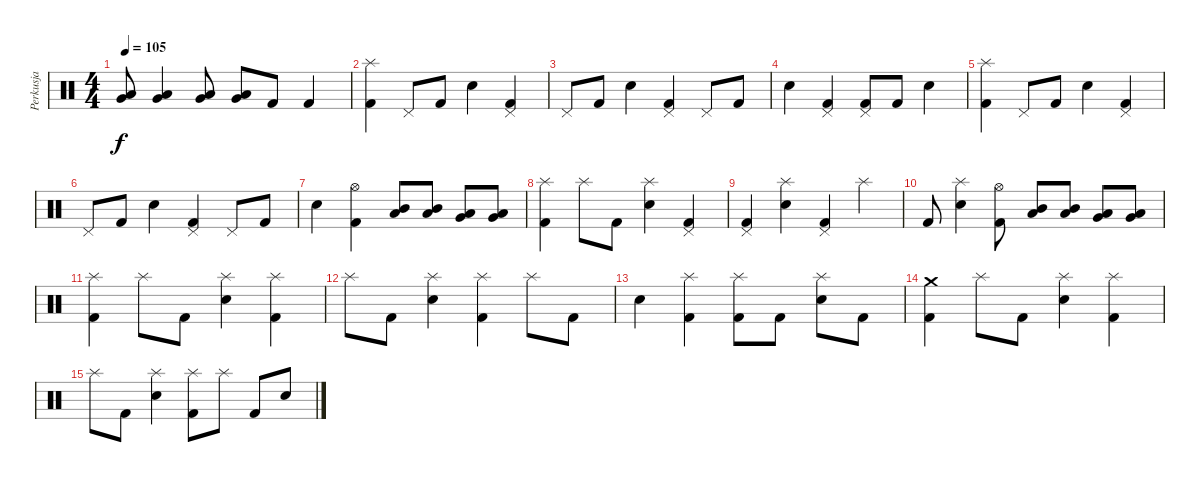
\track ("Perkusja" "Perkusja") {instrument percussion}
\staff {score}
\articulation defaults
\ts (4 4)
\tempo 105
\clef neutral
\ks c
("Low Tom (hit)" "Very Low Tom (hit)").8{dy f} ("Very Low Tom (hit)" "Low Floor Tom (hit)").4 ("Low Tom (hit)" "Very Low Tom (hit)").8 ("Very Low Tom (hit)" "Low Floor Tom (hit)").8 "Kick (hit) 2".8 "Kick (hit) 2".4 |
("Splash (hit)" "Kick (hit) 2").4 "Pedal Hi-Hat (hit)".8 "Kick (hit) 2".8 "Snare (hit) 2".4 ("Pedal Hi-Hat (hit)" "Kick (hit) 2").4 |
"Pedal Hi-Hat (hit)".8 "Kick (hit) 2".8 "Snare (hit) 2".4 ("Pedal Hi-Hat (hit)" "Kick (hit) 2").4 "Pedal Hi-Hat (hit)".8 "Kick (hit) 2".8 |
"Snare (hit) 2".4 ("Pedal Hi-Hat (hit)" "Kick (hit) 2").4 ("Pedal Hi-Hat (hit)" "Kick (hit) 2").8 "Kick (hit) 2".8 "Snare (hit) 2".4 |
("Splash (hit)" "Kick (hit) 2").4 "Pedal Hi-Hat (hit)".8 "Kick (hit) 2".8 "Snare (hit) 2".4 ("Pedal Hi-Hat (hit)" "Kick (hit) 2").4 |
"Pedal Hi-Hat (hit)".8 "Kick (hit) 2".8 "Snare (hit) 2".4 ("Pedal Hi-Hat (hit)" "Kick (hit) 2").4 "Pedal Hi-Hat (hit)".8 "Kick (hit) 2".8 |
"Snare (hit) 2".4 ("Hi-Hat (open)" "Kick (hit) 2").4 ("Mid Tom (hit)" "Low Tom (hit)").8 ("Mid Tom (hit)" "Low Tom (hit)").8 ("Low Tom (hit)" "Very Low Tom (hit)").8 ("Low Tom (hit)" "Very Low Tom (hit)").8 |
("Splash (hit)" "Kick (hit) 2").4 "Splash (hit)".8 "Kick (hit) 2".8 ("Splash (hit)" "Snare (hit) 2").4 ("Pedal Hi-Hat (hit)" "Kick (hit) 2").4 |
("Pedal Hi-Hat (hit)" "Kick (hit) 2").4 ("Splash (hit)" "Snare (hit) 2").4 ("Pedal Hi-Hat (hit)" "Kick (hit) 2").4 "Splash (hit)".4 |
"Kick (hit) 2".8 ("Splash (hit)" "Snare (hit) 2").4 ("Hi-Hat (open)" "Kick (hit) 2").8 ("Mid Tom (hit)" "Low Tom (hit)").8 ("Mid Tom (hit)" "Low Tom (hit)").8 ("Low Tom (hit)" "Very Low Tom (hit)").8 ("Low Tom (hit)" "Very Low Tom (hit)").8 |
("Splash (hit)" "Kick (hit) 2").4 "Splash (hit)".8 "Kick (hit) 2".8 ("Splash (hit)" "Snare (hit) 2").4 ("Splash (hit)" "Kick (hit) 2").4 |
"Splash (hit)".8 "Kick (hit) 2".8 ("Splash (hit)" "Snare (hit) 2").4 ("Splash (hit)" "Kick (hit) 2").4 "Splash (hit)".8 "Kick (hit) 2".8 |
"Snare (hit) 2".4 ("Splash (hit)" "Kick (hit) 2").4 ("Splash (hit)" "Kick (hit) 2").8 "Kick (hit) 2".8 ("Splash (hit)" "Snare (hit) 2").8 "Kick (hit) 2".8 |
("Crash medium (hit)" "Kick (hit) 2").4 "Splash (hit)".8 "Kick (hit) 2".8 ("Splash (hit)" "Snare (hit) 2").4 ("Splash (hit)" "Kick (hit) 2").4 |
"Splash (hit)".8 "Kick (hit) 2".8 ("Splash (hit)" "Snare (hit) 2").4 ("Splash (hit)" "Kick (hit) 2").8 "Splash (hit)".8 "Kick (hit) 2".8 "Snare (hit) 2".8
